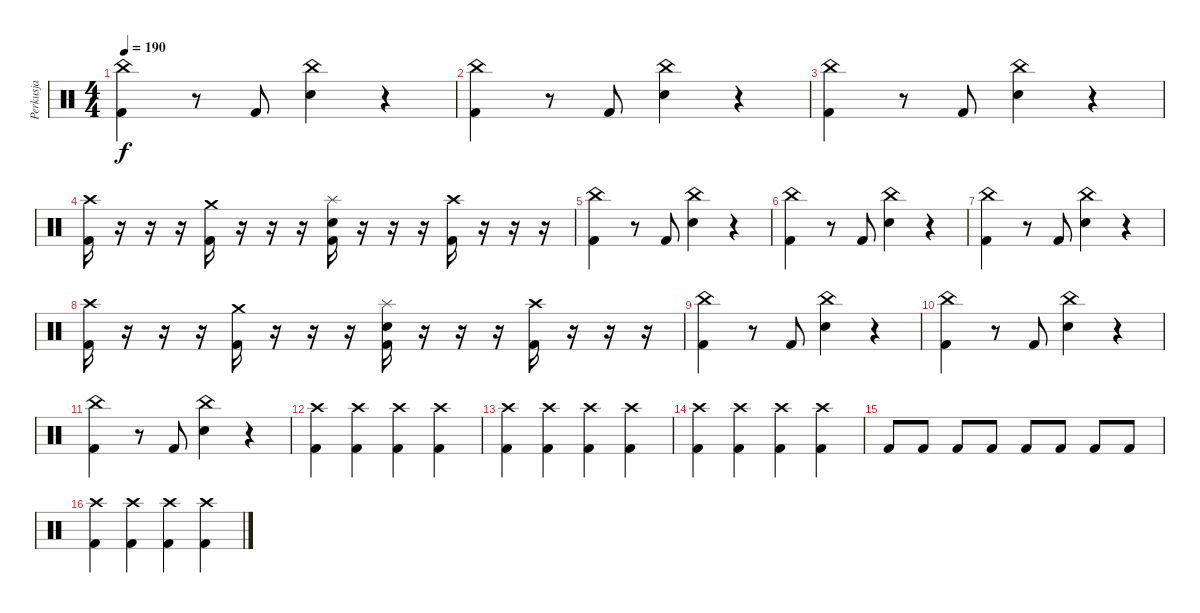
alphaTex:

\track ("Perkusja" "Perkusja") {instrument percussion}
\staff {score}
\articulation defaults
\ts (4 4)
\tempo 190
\clef neutral
\ks c
("China (hit)" "Kick (hit) 2").4{dy f} r.8 "Kick (hit) 2".8 ("China (hit)" "Electric Snare (hit)").4 r.4 |
("China (hit)" "Kick (hit) 2").4 r.8 "Kick (hit) 2".8 ("China (hit)" "Electric Snare (hit)").4 r.4 |
("China (hit)" "Kick (hit) 2").4 r.8 "Kick (hit) 2".8 ("China (hit)" "Electric Snare (hit)").4 r.4 |
("Crash high (hit)" "Kick (hit) 2").16 r.16 r.16 r.16 ("Crash medium (hit)" "Kick (hit) 2").16 r.16 r.16 r.16 ("Splash (hit)" "Electric Snare (hit)" "Kick (hit) 2").16 r.16 r.16 r.16 ("Crash high (hit)" "Kick (hit) 2").16 r.16 r.16 r.16 |
("China (hit)" "Kick (hit) 2").4 r.8 "Kick (hit) 2".8 ("China (hit)" "Electric Snare (hit)").4 r.4 |
("China (hit)" "Kick (hit) 2").4 r.8 "Kick (hit) 2".8 ("China (hit)" "Electric Snare (hit)").4 r.4 |
("China (hit)" "Kick (hit) 2").4 r.8 "Kick (hit) 2".8 ("China (hit)" "Electric Snare (hit)").4 r.4 |
("Crash high (hit)" "Kick (hit) 2").16 r.16 r.16 r.16 ("Crash medium (hit)" "Kick (hit) 2").16 r.16 r.16 r.16 ("Splash (hit)" "Electric Snare (hit)" "Kick (hit) 2").16 r.16 r.16 r.16 ("Crash high (hit)" "Kick (hit) 2").16 r.16 r.16 r.16 |
("China (hit)" "Kick (hit) 2").4 r.8 "Kick (hit) 2".8 ("China (hit)" "Electric Snare (hit)").4 r.4 |
("China (hit)" "Kick (hit) 2").4 r.8 "Kick (hit) 2".8 ("China (hit)" "Electric Snare (hit)").4 r.4 |
("China (hit)" "Kick (hit) 2").4 r.8 "Kick (hit) 2".8 ("China (hit)" "Electric Snare (hit)").4 r.4 |
("Crash high (hit)" "Kick (hit) 2").4 ("Crash high (hit)" "Kick (hit) 2").4 ("Crash high (hit)" "Kick (hit) 2").4 ("Crash high (hit)" "Kick (hit) 2").4 |
("Crash high (hit)" "Kick (hit) 2").4 ("Crash high (hit)" "Kick (hit) 2").4 ("Crash high (hit)" "Kick (hit) 2").4 ("Crash high (hit)" "Kick (hit) 2").4 |
("Crash high (hit)" "Kick (hit) 2").4 ("Crash high (hit)" "Kick (hit) 2").4 ("Crash high (hit)" "Kick (hit) 2").4 ("Crash high (hit)" "Kick (hit) 2").4 |
"Kick (hit) 2".8 "Kick (hit) 2".8 "Kick (hit) 2".8 "Kick (hit) 2".8 "Kick (hit) 2".8 "Kick (hit) 2".8 "Kick (hit) 2".8 "Kick (hit) 2".8 |
("Crash high (hit)" "Kick (hit) 2").4 ("Crash high (hit)" "Kick (hit) 2").4 ("Crash high (hit)" "Kick (hit) 2").4 ("Crash high (hit)" "Kick (hit) 2").4
